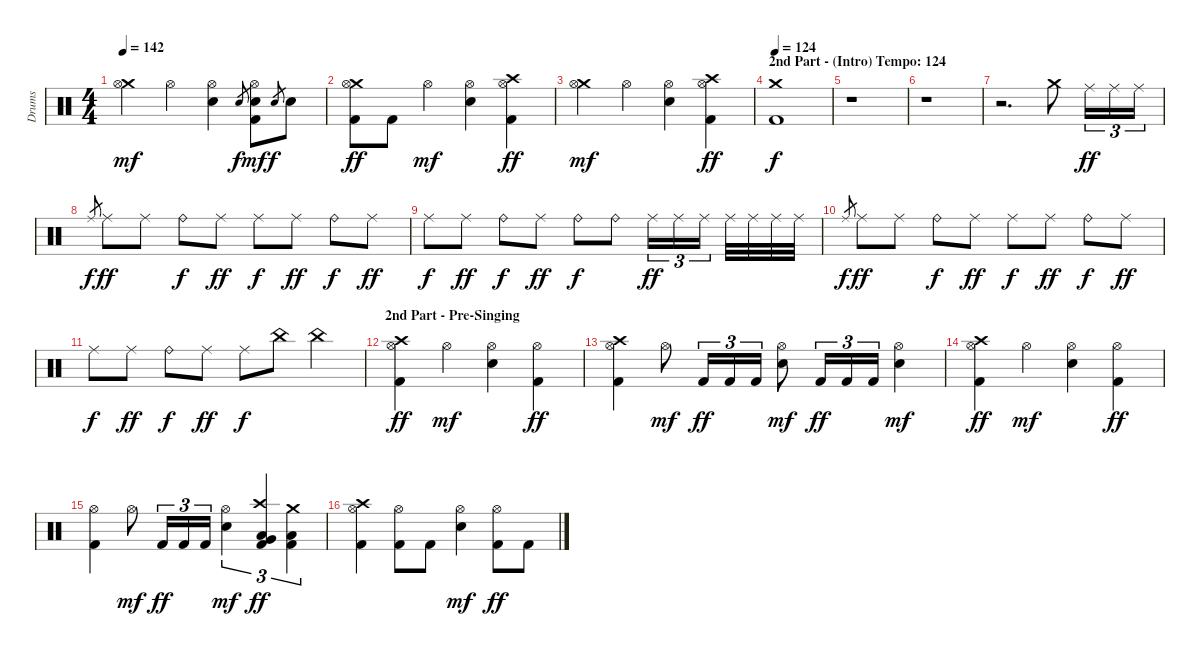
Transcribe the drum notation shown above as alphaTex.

\track ("Drums" "Drums") {instrument percussion}
\staff {score}
\articulation defaults
\ts (4 4)
\tempo 142
\clef neutral
\ks c
("Crash medium (hit)" "Hi-Hat (open)").4{dy mf} "Hi-Hat (open)".4 ("Hi-Hat (open)" "Snare (hit) 2").4 "Snare (hit) 2".8{gr dy f} ("Hi-Hat (open)" "Snare (hit) 2" "Kick (hit) 2").8{dy mf} "Snare (hit) 2".8{gr dy f} "Snare (hit) 2".8 |
("Crash medium (hit)" "Hi-Hat (open)" "Kick (hit) 2").8{dy ff} "Kick (hit) 2".8 "Hi-Hat (open)".4{dy mf} ("Hi-Hat (open)" "Snare (hit) 2").4 ("Crash high (hit)" "Hi-Hat (open)" "Kick (hit) 2").4{dy ff} |
("Crash medium (hit)" "Hi-Hat (open)").4{dy mf} "Hi-Hat (open)".4 ("Hi-Hat (open)" "Snare (hit) 2").4 ("Crash high (hit)" "Hi-Hat (open)" "Kick (hit) 2").4{dy ff} |
\section ("" "2nd Part - (Intro) Tempo: 124")
\tempo 124
("Crash medium (hit)" "Kick (hit) 2").1{dy f} |
r.1 |
r.1 |
r.2{d} "Crash medium (hit)".8 "Ride (middle)".16{tu (3 2) dy ff} "Ride (middle)".16{tu (3 2)} "Ride (middle)".16{tu (3 2)} |
"Ride (middle)".8{gr dy f} "Ride (middle)".8{dy ff} "Ride (middle)".8 "Ride (bell)".8{dy f} "Ride (middle)".8{dy ff} "Ride (middle)".8{dy f} "Ride (middle)".8{dy ff} "Ride (bell)".8{dy f} "Ride (middle)".8{dy ff} |
"Ride (middle)".8{dy f} "Ride (middle)".8{dy ff} "Ride (bell)".8{dy f} "Ride (middle)".8{dy ff} "Ride (bell)".8{dy f} "Ride (bell)".8 "Ride (middle)".16{tu (3 2) dy ff} "Ride (middle)".16{tu (3 2)} "Ride (middle)".16{tu (3 2)} "Ride (middle)".32 "Ride (middle)".32 "Ride (middle)".32 "Ride (middle)".32 |
"Ride (middle)".8{gr dy f} "Ride (middle)".8{dy ff} "Ride (middle)".8 "Ride (bell)".8{dy f} "Ride (middle)".8{dy ff} "Ride (middle)".8{dy f} "Ride (middle)".8{dy ff} "Ride (bell)".8{dy f} "Ride (middle)".8{dy ff} |
"Ride (middle)".8{dy f} "Ride (middle)".8{dy ff} "Ride (bell)".8{dy f} "Ride (middle)".8{dy ff} "Ride (middle)".8{dy f} "China (hit)".8 "China (hit)".4 |
\section ("" "2nd Part - Pre-Singing")
("Crash high (hit)" "Hi-Hat (open)" "Kick (hit) 2").4{dy ff} "Hi-Hat (open)".4{dy mf} ("Hi-Hat (open)" "Snare (hit) 2").4 ("Hi-Hat (open)" "Kick (hit) 2").4{dy ff} |
("Crash high (hit)" "Hi-Hat (open)" "Kick (hit) 2").4 "Hi-Hat (open)".8{dy mf} "Kick (hit) 2".16{tu (3 2) dy ff} "Kick (hit) 2".16{tu (3 2)} "Kick (hit) 2".16{tu (3 2)} ("Hi-Hat (open)" "Snare (hit) 2").8{dy mf} "Kick (hit) 2".16{tu (3 2) dy ff} "Kick (hit) 2".16{tu (3 2)} "Kick (hit) 2".16{tu (3 2)} ("Hi-Hat (open)" "Snare (hit) 2").4{dy mf} |
("Crash high (hit)" "Hi-Hat (open)" "Kick (hit) 2").4{dy ff} "Hi-Hat (open)".4{dy mf} ("Hi-Hat (open)" "Snare (hit) 2").4 ("Hi-Hat (open)" "Kick (hit) 2").4{dy ff} |
("Hi-Hat (open)" "Kick (hit) 2").4 "Hi-Hat (open)".8{dy mf} "Kick (hit) 2".16{tu (3 2) dy ff} "Kick (hit) 2".16{tu (3 2)} "Kick (hit) 2".16{tu (3 2)} ("Hi-Hat (open)" "Snare (hit) 2").4{tu (3 2) dy mf} ("Crash high (hit)" "Very Low Tom (hit)" "Low Floor Tom (hit)" "Kick (hit) 2").4{tu (3 2) dy ff} ("Crash medium (hit)" "Low Floor Tom (hit)" "Kick (hit) 2").4{tu (3 2)} |
("Crash high (hit)" "Hi-Hat (open)" "Kick (hit) 2").4 ("Hi-Hat (open)" "Kick (hit) 2").8 "Kick (hit) 2".8 ("Hi-Hat (open)" "Snare (hit) 2").4{dy mf} ("Hi-Hat (open)" "Kick (hit) 2").8{dy ff} "Kick (hit) 2".8
